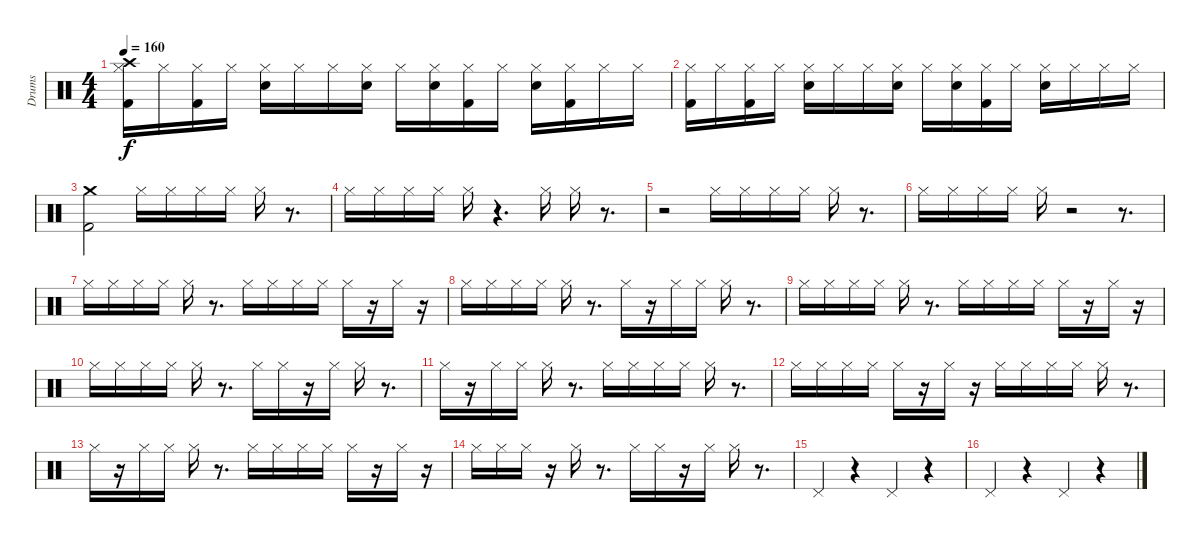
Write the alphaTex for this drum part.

\track ("Drums" "Drums") {instrument percussion}
\staff {score}
\articulation defaults
\ts (4 4)
\tempo 160
\clef neutral
\ks c
("Crash high (hit)" "Kick (hit) 2" "Hi-Hat (closed)").16{dy f} "Hi-Hat (closed)".16 ("Kick (hit) 2" "Hi-Hat (closed)").16 "Hi-Hat (closed)".16 ("Hi-Hat (closed)" "Electric Snare (hit)").16 "Hi-Hat (closed)".16 "Hi-Hat (closed)".16 ("Electric Snare (hit)" "Hi-Hat (closed)").16 "Hi-Hat (closed)".16 ("Electric Snare (hit)" "Hi-Hat (closed)").16 ("Kick (hit) 2" "Hi-Hat (closed)").16 "Hi-Hat (closed)".16 ("Electric Snare (hit)" "Hi-Hat (closed)").16 ("Kick (hit) 2" "Hi-Hat (closed)").16 "Hi-Hat (closed)".16 "Hi-Hat (closed)".16 |
("Kick (hit) 2" "Hi-Hat (closed)").16 "Hi-Hat (closed)".16 ("Kick (hit) 2" "Hi-Hat (closed)").16 "Hi-Hat (closed)".16 ("Hi-Hat (closed)" "Electric Snare (hit)").16 "Hi-Hat (closed)".16 "Hi-Hat (closed)".16 ("Electric Snare (hit)" "Hi-Hat (closed)").16 "Hi-Hat (closed)".16 ("Electric Snare (hit)" "Hi-Hat (closed)").16 ("Kick (hit) 2" "Hi-Hat (closed)").16 "Hi-Hat (closed)".16 ("Electric Snare (hit)" "Hi-Hat (closed)").16 "Hi-Hat (closed)".16 "Hi-Hat (closed)".16 "Hi-Hat (closed)".16 |
("Crash medium (hit)" "Kick (hit) 2").2 "Hi-Hat (closed)".16 "Hi-Hat (closed)".16 "Hi-Hat (closed)".16 "Hi-Hat (closed)".16 "Hi-Hat (closed)".16 r.8{d} |
"Hi-Hat (closed)".16 "Hi-Hat (closed)".16 "Hi-Hat (closed)".16 "Hi-Hat (closed)".16 "Hi-Hat (closed)".16 r.4{d} "Hi-Hat (closed)".16 "Hi-Hat (closed)".16 r.8{d} |
r.2 "Hi-Hat (closed)".16 "Hi-Hat (closed)".16 "Hi-Hat (closed)".16 "Hi-Hat (closed)".16 "Hi-Hat (closed)".16 r.8{d} |
"Hi-Hat (closed)".16 "Hi-Hat (closed)".16 "Hi-Hat (closed)".16 "Hi-Hat (closed)".16 "Hi-Hat (closed)".16 r.2 r.8{d} |
"Hi-Hat (closed)".16 "Hi-Hat (closed)".16 "Hi-Hat (closed)".16 "Hi-Hat (closed)".16 "Hi-Hat (closed)".16 r.8{d} "Hi-Hat (closed)".16 "Hi-Hat (closed)".16 "Hi-Hat (closed)".16 "Hi-Hat (closed)".16 "Hi-Hat (closed)".16 r.16 "Hi-Hat (closed)".16 r.16 |
"Hi-Hat (closed)".16 "Hi-Hat (closed)".16 "Hi-Hat (closed)".16 "Hi-Hat (closed)".16 "Hi-Hat (closed)".16 r.8{d} "Hi-Hat (closed)".16 r.16 "Hi-Hat (closed)".16 "Hi-Hat (closed)".16 "Hi-Hat (closed)".16 r.8{d} |
"Hi-Hat (closed)".16 "Hi-Hat (closed)".16 "Hi-Hat (closed)".16 "Hi-Hat (closed)".16 "Hi-Hat (closed)".16 r.8{d} "Hi-Hat (closed)".16 "Hi-Hat (closed)".16 "Hi-Hat (closed)".16 "Hi-Hat (closed)".16 "Hi-Hat (closed)".16 r.16 "Hi-Hat (closed)".16 r.16 |
"Hi-Hat (closed)".16 "Hi-Hat (closed)".16 "Hi-Hat (closed)".16 "Hi-Hat (closed)".16 "Hi-Hat (closed)".16 r.8{d} "Hi-Hat (closed)".16 "Hi-Hat (closed)".16 r.16 "Hi-Hat (closed)".16 "Hi-Hat (closed)".16 r.8{d} |
"Hi-Hat (closed)".16 r.16 "Hi-Hat (closed)".16 "Hi-Hat (closed)".16 "Hi-Hat (closed)".16 r.8{d} "Hi-Hat (closed)".16 "Hi-Hat (closed)".16 "Hi-Hat (closed)".16 "Hi-Hat (closed)".16 "Hi-Hat (closed)".16 r.8{d} |
"Hi-Hat (closed)".16 "Hi-Hat (closed)".16 "Hi-Hat (closed)".16 "Hi-Hat (closed)".16 "Hi-Hat (closed)".16 r.16 "Hi-Hat (closed)".16 r.16 "Hi-Hat (closed)".16 "Hi-Hat (closed)".16 "Hi-Hat (closed)".16 "Hi-Hat (closed)".16 "Hi-Hat (closed)".16 r.8{d} |
"Hi-Hat (closed)".16 r.16 "Hi-Hat (closed)".16 "Hi-Hat (closed)".16 "Hi-Hat (closed)".16 r.8{d} "Hi-Hat (closed)".16 "Hi-Hat (closed)".16 "Hi-Hat (closed)".16 "Hi-Hat (closed)".16 "Hi-Hat (closed)".16 r.16 "Hi-Hat (closed)".16 r.16 |
"Hi-Hat (closed)".16 "Hi-Hat (closed)".16 "Hi-Hat (closed)".16 r.16 "Hi-Hat (closed)".16 r.8{d} "Hi-Hat (closed)".16 "Hi-Hat (closed)".16 r.16 "Hi-Hat (closed)".16 "Hi-Hat (closed)".16 r.8{d} |
"Pedal Hi-Hat (hit)".4 r.4 "Pedal Hi-Hat (hit)".4 r.4 |
"Pedal Hi-Hat (hit)".4 r.4 "Pedal Hi-Hat (hit)".4 r.4
